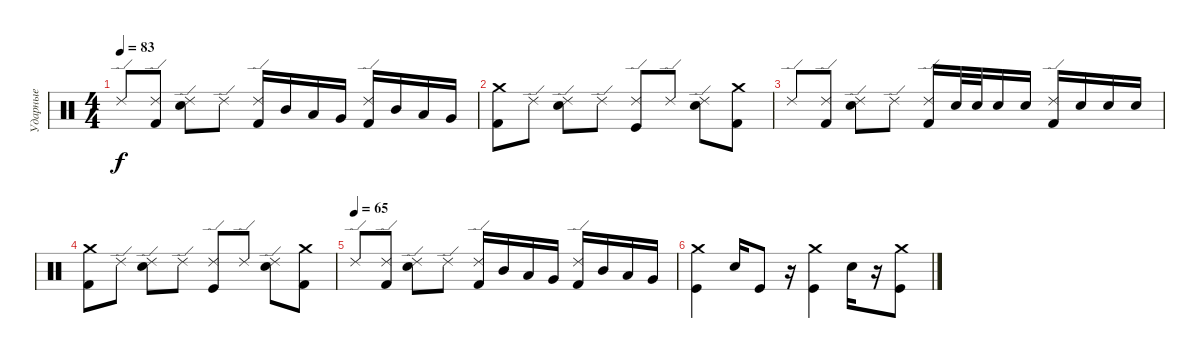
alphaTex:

\track ("Ударные" "Ударные") {instrument percussion}
\staff {score}
\articulation defaults
\ts (4 4)
\tempo 83
\clef neutral
\ks c "Ride (edge) 2".8{dy f}
("Ride (edge) 2" "Kick (hit) 2").8 ("Ride (edge) 2" "Snare (hit) 2").8 "Ride (edge) 2".8 ("Kick (hit) 2" "Ride (edge) 2").16 "Mid Tom (hit)".16 "Low Tom (hit)".16 "Very Low Tom (hit)".16 ("Kick (hit) 2" "Ride (edge) 2").16 "Mid Tom (hit)".16 "Low Tom (hit)".16 "Very Low Tom (hit)".16 |
("Crash medium (hit)" "Kick (hit) 2").8 "Ride (edge) 2".8 ("Ride (edge) 2" "Snare (hit) 2").8 "Ride (edge) 2".8 ("Ride (edge) 2" "Kick (hit)").8 "Ride (edge) 2".8 ("Ride (edge) 2" "Snare (hit) 2").8 ("Crash medium (hit)" "Kick (hit) 2").8 |
"Ride (edge) 2".8 ("Ride (edge) 2" "Kick (hit) 2").8 ("Ride (edge) 2" "Snare (hit) 2").8 "Ride (edge) 2".8 ("Kick (hit) 2" "Ride (edge) 2").16 "Snare (hit) 2".32 "Snare (hit) 2".32 "Snare (hit) 2".16 "Snare (hit) 2".16 ("Kick (hit) 2" "Ride (edge) 2").16 "Snare (hit) 2".16 "Snare (hit) 2".16 "Snare (hit) 2".16 |
("Crash medium (hit)" "Kick (hit) 2").8 "Ride (edge) 2".8 ("Ride (edge) 2" "Snare (hit) 2").8 "Ride (edge) 2".8 ("Ride (edge) 2" "Kick (hit)").8 "Ride (edge) 2".8 ("Ride (edge) 2" "Snare (hit) 2").8 ("Crash medium (hit)" "Kick (hit) 2").8 |
\tempo (65)
"Ride (edge) 2".8 ("Ride (edge) 2" "Kick (hit) 2").8 ("Ride (edge) 2" "Snare (hit) 2").8 "Ride (edge) 2".8 ("Kick (hit) 2" "Ride (edge) 2").16 "Mid Tom (hit)".16 "Low Tom (hit)".16 "Very Low Tom (hit)".16 ("Kick (hit) 2" "Ride (edge) 2").16 "Mid Tom (hit)".16 "Low Tom (hit)".16 "Very Low Tom (hit)".16 |
("Crash medium (hit)" "Kick (hit)").4 "Snare (hit) 2".16 "Kick (hit)".8 r.16 ("Crash medium (hit)" "Kick (hit)").4 "Snare (hit) 2".16 r.16 ("Crash medium (hit)" "Kick (hit)").8
